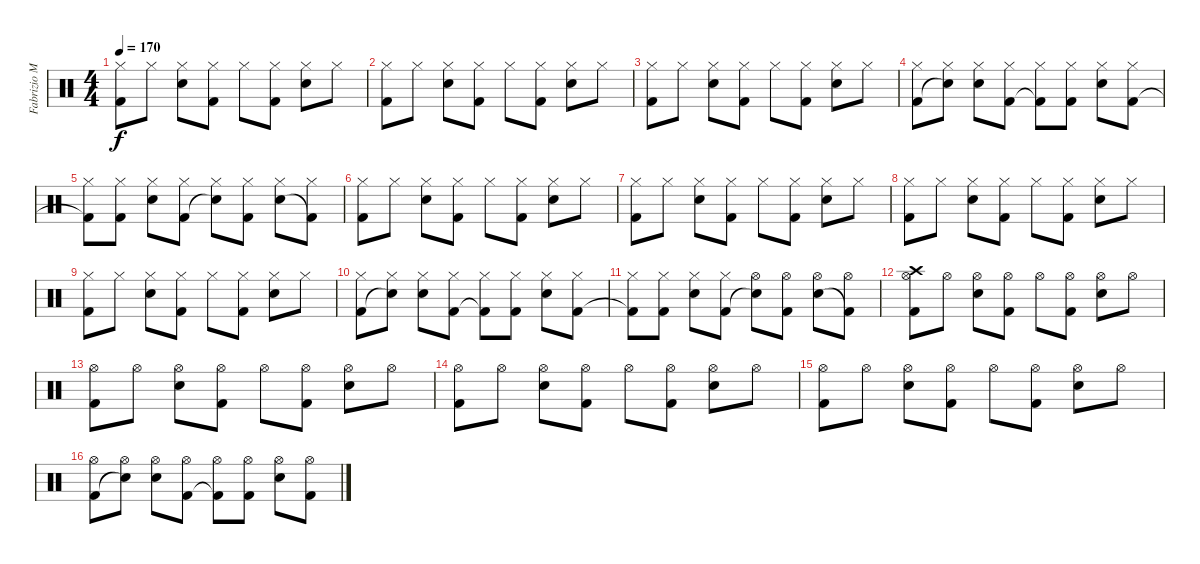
\track ("Fabrizio Moretti" "Fabrizio M") {instrument percussion}
\staff {score}
\articulation defaults
\ts (4 4)
\tempo 170
\clef neutral
\ks c
("Hi-Hat (closed)" "Kick (hit) 2").8{dy f} "Hi-Hat (closed)".8 ("Hi-Hat (closed)" "Electric Snare (hit)").8 ("Hi-Hat (closed)" "Kick (hit) 2").8 "Hi-Hat (closed)".8 ("Hi-Hat (closed)" "Kick (hit) 2").8 ("Hi-Hat (closed)" "Electric Snare (hit)").8 "Hi-Hat (closed)".8 |
("Hi-Hat (closed)" "Kick (hit) 2").8 "Hi-Hat (closed)".8 ("Hi-Hat (closed)" "Electric Snare (hit)").8 ("Hi-Hat (closed)" "Kick (hit) 2").8 "Hi-Hat (closed)".8 ("Hi-Hat (closed)" "Kick (hit) 2").8 ("Hi-Hat (closed)" "Electric Snare (hit)").8 "Hi-Hat (closed)".8 |
("Hi-Hat (closed)" "Kick (hit) 2").8 "Hi-Hat (closed)".8 ("Hi-Hat (closed)" "Electric Snare (hit)").8 ("Hi-Hat (closed)" "Kick (hit) 2").8 "Hi-Hat (closed)".8 ("Hi-Hat (closed)" "Kick (hit) 2").8 ("Hi-Hat (closed)" "Electric Snare (hit)").8 "Hi-Hat (closed)".8 |
("Hi-Hat (closed)" "Kick (hit) 2").8 ("Hi-Hat (closed)" "Snare (hit)"{t}).8 ("Hi-Hat (closed)" "Electric Snare (hit)").8 ("Hi-Hat (closed)" "Kick (hit) 2").8 ("Hi-Hat (closed)" "Kick (hit) 2"{t}).8 ("Hi-Hat (closed)" "Kick (hit) 2").8 ("Hi-Hat (closed)" "Electric Snare (hit)").8 ("Hi-Hat (closed)" "Kick (hit) 2").8 |
("Hi-Hat (closed)" "Kick (hit) 2"{t}).8 ("Hi-Hat (closed)" "Kick (hit) 2").8 ("Hi-Hat (closed)" "Electric Snare (hit)").8 ("Hi-Hat (closed)" "Kick (hit) 2").8 ("Hi-Hat (closed)" "Snare (hit)"{t}).8 ("Hi-Hat (closed)" "Kick (hit) 2").8 ("Hi-Hat (closed)" "Electric Snare (hit)").8 ("Hi-Hat (closed)" "Kick (hit) 2"{t}).8 |
("Hi-Hat (closed)" "Kick (hit) 2").8 "Hi-Hat (closed)".8 ("Hi-Hat (closed)" "Electric Snare (hit)").8 ("Hi-Hat (closed)" "Kick (hit) 2").8 "Hi-Hat (closed)".8 ("Hi-Hat (closed)" "Kick (hit) 2").8 ("Hi-Hat (closed)" "Electric Snare (hit)").8 "Hi-Hat (closed)".8 |
("Hi-Hat (closed)" "Kick (hit) 2").8 "Hi-Hat (closed)".8 ("Hi-Hat (closed)" "Electric Snare (hit)").8 ("Hi-Hat (closed)" "Kick (hit) 2").8 "Hi-Hat (closed)".8 ("Hi-Hat (closed)" "Kick (hit) 2").8 ("Hi-Hat (closed)" "Electric Snare (hit)").8 "Hi-Hat (closed)".8 |
("Hi-Hat (closed)" "Kick (hit) 2").8 "Hi-Hat (closed)".8 ("Hi-Hat (closed)" "Electric Snare (hit)").8 ("Hi-Hat (closed)" "Kick (hit) 2").8 "Hi-Hat (closed)".8 ("Hi-Hat (closed)" "Kick (hit) 2").8 ("Hi-Hat (closed)" "Electric Snare (hit)").8 "Hi-Hat (closed)".8 |
("Hi-Hat (closed)" "Kick (hit) 2").8 "Hi-Hat (closed)".8 ("Hi-Hat (closed)" "Electric Snare (hit)").8 ("Hi-Hat (closed)" "Kick (hit) 2").8 "Hi-Hat (closed)".8 ("Hi-Hat (closed)" "Kick (hit) 2").8 ("Hi-Hat (closed)" "Electric Snare (hit)").8 "Hi-Hat (closed)".8 |
("Hi-Hat (closed)" "Kick (hit) 2").8 ("Hi-Hat (closed)" "Snare (hit)"{t}).8 ("Hi-Hat (closed)" "Electric Snare (hit)").8 ("Hi-Hat (closed)" "Kick (hit) 2").8 ("Hi-Hat (closed)" "Kick (hit) 2"{t}).8 ("Hi-Hat (closed)" "Kick (hit) 2").8 ("Hi-Hat (closed)" "Electric Snare (hit)").8 ("Hi-Hat (closed)" "Kick (hit) 2").8 |
("Hi-Hat (closed)" "Kick (hit) 2"{t}).8 ("Hi-Hat (closed)" "Kick (hit) 2").8 ("Hi-Hat (closed)" "Electric Snare (hit)").8 ("Hi-Hat (closed)" "Kick (hit) 2").8 ("Hi-Hat (open)" "Snare (hit)"{t}).8 ("Hi-Hat (open)" "Kick (hit) 2").8 ("Hi-Hat (open)" "Electric Snare (hit)").8 ("Hi-Hat (open)" "Kick (hit) 2"{t}).8 |
("Crash high (hit)" "Hi-Hat (open)" "Kick (hit) 2").8 "Hi-Hat (open)".8 ("Hi-Hat (open)" "Electric Snare (hit)").8 ("Hi-Hat (open)" "Kick (hit) 2").8 "Hi-Hat (open)".8 ("Hi-Hat (open)" "Kick (hit) 2").8 ("Hi-Hat (open)" "Electric Snare (hit)").8 "Hi-Hat (open)".8 |
("Hi-Hat (open)" "Kick (hit) 2").8 "Hi-Hat (open)".8 ("Hi-Hat (open)" "Electric Snare (hit)").8 ("Hi-Hat (open)" "Kick (hit) 2").8 "Hi-Hat (open)".8 ("Hi-Hat (open)" "Kick (hit) 2").8 ("Hi-Hat (open)" "Electric Snare (hit)").8 "Hi-Hat (open)".8 |
("Hi-Hat (open)" "Kick (hit) 2").8 "Hi-Hat (open)".8 ("Hi-Hat (open)" "Electric Snare (hit)").8 ("Hi-Hat (open)" "Kick (hit) 2").8 "Hi-Hat (open)".8 ("Hi-Hat (open)" "Kick (hit) 2").8 ("Hi-Hat (open)" "Electric Snare (hit)").8 "Hi-Hat (open)".8 |
("Hi-Hat (open)" "Kick (hit) 2").8 "Hi-Hat (open)".8 ("Hi-Hat (open)" "Electric Snare (hit)").8 ("Hi-Hat (open)" "Kick (hit) 2").8 "Hi-Hat (open)".8 ("Hi-Hat (open)" "Kick (hit) 2").8 ("Hi-Hat (open)" "Electric Snare (hit)").8 "Hi-Hat (open)".8 |
("Hi-Hat (open)" "Kick (hit) 2").8 ("Hi-Hat (open)" "Snare (hit)"{t}).8 ("Hi-Hat (open)" "Electric Snare (hit)").8 ("Hi-Hat (open)" "Kick (hit) 2").8 ("Hi-Hat (open)" "Kick (hit) 2"{t}).8 ("Hi-Hat (open)" "Kick (hit) 2").8 ("Hi-Hat (open)" "Electric Snare (hit)").8 ("Hi-Hat (open)" "Kick (hit) 2").8
